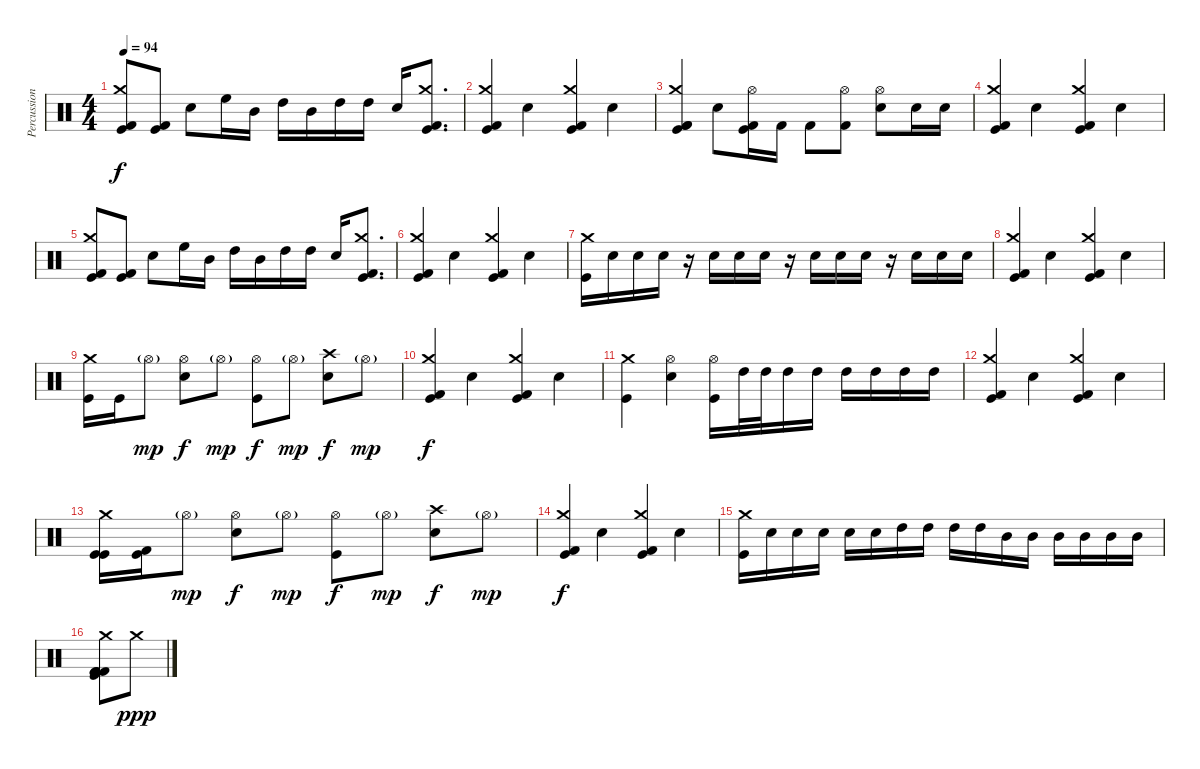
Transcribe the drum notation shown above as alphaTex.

\track ("Percussion" "Percussion") {solo instrument percussion}
\staff {score}
\articulation defaults
\ts (4 4)
\tempo 94
\clef neutral
\ks c
("Kick (hit) 2" "Crash medium (hit)" "Kick (hit)").8{dy f} ("Kick (hit) 2" "Kick (hit)").8 "Electric Snare (hit)".8 "High Floor Tom (hit)".16 "Mid Tom (hit)".16 "High Tom (hit)".16 "Mid Tom (hit)".16 "High Tom (hit)".16 "High Tom (hit)".16 "Electric Snare (hit)".16 ("Kick (hit) 2" "Crash medium (hit)" "Kick (hit)").8{d} |
("Kick (hit) 2" "Crash medium (hit)" "Kick (hit)").4 "Electric Snare (hit)".4 ("Kick (hit) 2" "Crash medium (hit)" "Kick (hit)").4 "Electric Snare (hit)".4 |
("Kick (hit) 2" "Kick (hit) 2" "Crash medium (hit)" "Kick (hit)").4 "Electric Snare (hit)".8 ("Hi-Hat (open)" "Kick (hit) 2" "Kick (hit)").16 "Kick (hit) 2".16 "Kick (hit) 2".8 ("Hi-Hat (open)" "Kick (hit) 2").8 ("Hi-Hat (open)" "Electric Snare (hit)").8 "Electric Snare (hit)".16 "Electric Snare (hit)".16 |
("Kick (hit) 2" "Crash medium (hit)" "Kick (hit)").4 "Electric Snare (hit)".4 ("Kick (hit) 2" "Crash medium (hit)" "Kick (hit)").4 "Electric Snare (hit)".4 |
("Kick (hit) 2" "Crash medium (hit)" "Kick (hit)").8 ("Kick (hit) 2" "Kick (hit)").8 "Electric Snare (hit)".8 "High Floor Tom (hit)".16 "Mid Tom (hit)".16 "High Tom (hit)".16 "Mid Tom (hit)".16 "High Tom (hit)".16 "High Tom (hit)".16 "Electric Snare (hit)".16 ("Crash medium (hit)" "Kick (hit) 2" "Kick (hit)").8{d} |
("Kick (hit) 2" "Crash medium (hit)" "Kick (hit)").4 "Electric Snare (hit)".4 ("Kick (hit) 2" "Crash medium (hit)" "Kick (hit)").4 "Electric Snare (hit)".4 |
("Crash medium (hit)" "Kick (hit)").16 "Electric Snare (hit)".16 "Electric Snare (hit)".16 "Electric Snare (hit)".16 r.16 "Electric Snare (hit)".16 "Electric Snare (hit)".16 "Electric Snare (hit)".16 r.16 "Electric Snare (hit)".16 "Electric Snare (hit)".16 "Electric Snare (hit)".16 r.16 "Electric Snare (hit)".16 "Electric Snare (hit)".16 "Electric Snare (hit)".16 |
("Kick (hit) 2" "Crash medium (hit)" "Kick (hit)").4 "Electric Snare (hit)".4 ("Kick (hit) 2" "Crash medium (hit)" "Kick (hit)").4 "Electric Snare (hit)".4 |
("Crash medium (hit)" "Kick (hit)").16 "Kick (hit)".16 "Hi-Hat (open)"{g}.8{dy mp} ("Hi-Hat (open)" "Electric Snare (hit)").8{dy f} "Hi-Hat (open)"{g}.8{dy mp} ("Hi-Hat (open)" "Kick (hit)").8{dy f} "Hi-Hat (open)"{g}.8{dy mp} ("Crash high (hit)" "Electric Snare (hit)").8{dy f} "Hi-Hat (open)"{g}.8{dy mp} |
("Kick (hit) 2" "Crash medium (hit)" "Kick (hit)").4{dy f} "Electric Snare (hit)".4 ("Kick (hit) 2" "Crash medium (hit)" "Kick (hit)").4 "Electric Snare (hit)".4 |
("Crash medium (hit)" "Kick (hit)").4 ("Hi-Hat (open)" "Snare (hit) 2").4 ("Hi-Hat (open)" "Kick (hit)").16 "High Tom (hit)".32 "High Tom (hit)".32 "High Tom (hit)".16 "High Tom (hit)".16 "High Tom (hit)".16 "High Tom (hit)".16 "High Tom (hit)".16 "High Tom (hit)".16 |
("Kick (hit) 2" "Crash medium (hit)" "Kick (hit)").4 "Electric Snare (hit)".4 ("Kick (hit) 2" "Crash medium (hit)" "Kick (hit)").4 "Electric Snare (hit)".4 |
("Kick (hit)" "Crash medium (hit)" "Kick (hit)").16 ("Kick (hit) 2" "Kick (hit)").16 "Hi-Hat (open)"{g}.8{dy mp} ("Hi-Hat (open)" "Electric Snare (hit)").8{dy f} "Hi-Hat (open)"{g}.8{dy mp} ("Hi-Hat (open)" "Kick (hit)").8{dy f} "Hi-Hat (open)"{g}.8{dy mp} ("Crash high (hit)" "Electric Snare (hit)").8{dy f} "Hi-Hat (open)"{g}.8{dy mp} |
("Kick (hit) 2" "Crash medium (hit)" "Kick (hit)").4{dy f} "Electric Snare (hit)".4 ("Kick (hit) 2" "Crash medium (hit)" "Kick (hit)").4 "Electric Snare (hit)".4 |
("Crash medium (hit)" "Kick (hit)").16 "Electric Snare (hit)".16 "Electric Snare (hit)".16 "Electric Snare (hit)".16 "Snare (hit)".16 "Electric Snare (hit)".16 "High Tom (hit)".16 "High Tom (hit)".16 "High Tom (hit)".16 "High Tom (hit)".16 "Mid Tom (hit)".16 "Mid Tom (hit)".16 "Mid Tom (hit)".16 "Mid Tom (hit)".16 "Mid Tom (hit)".16 "Mid Tom (hit)".16 |
("Kick (hit) 2" "Kick (hit) 2" "Kick (hit) 2" "Crash medium (hit)" "Kick (hit)").8 "Crash medium (hit)".8{dy ppp}
